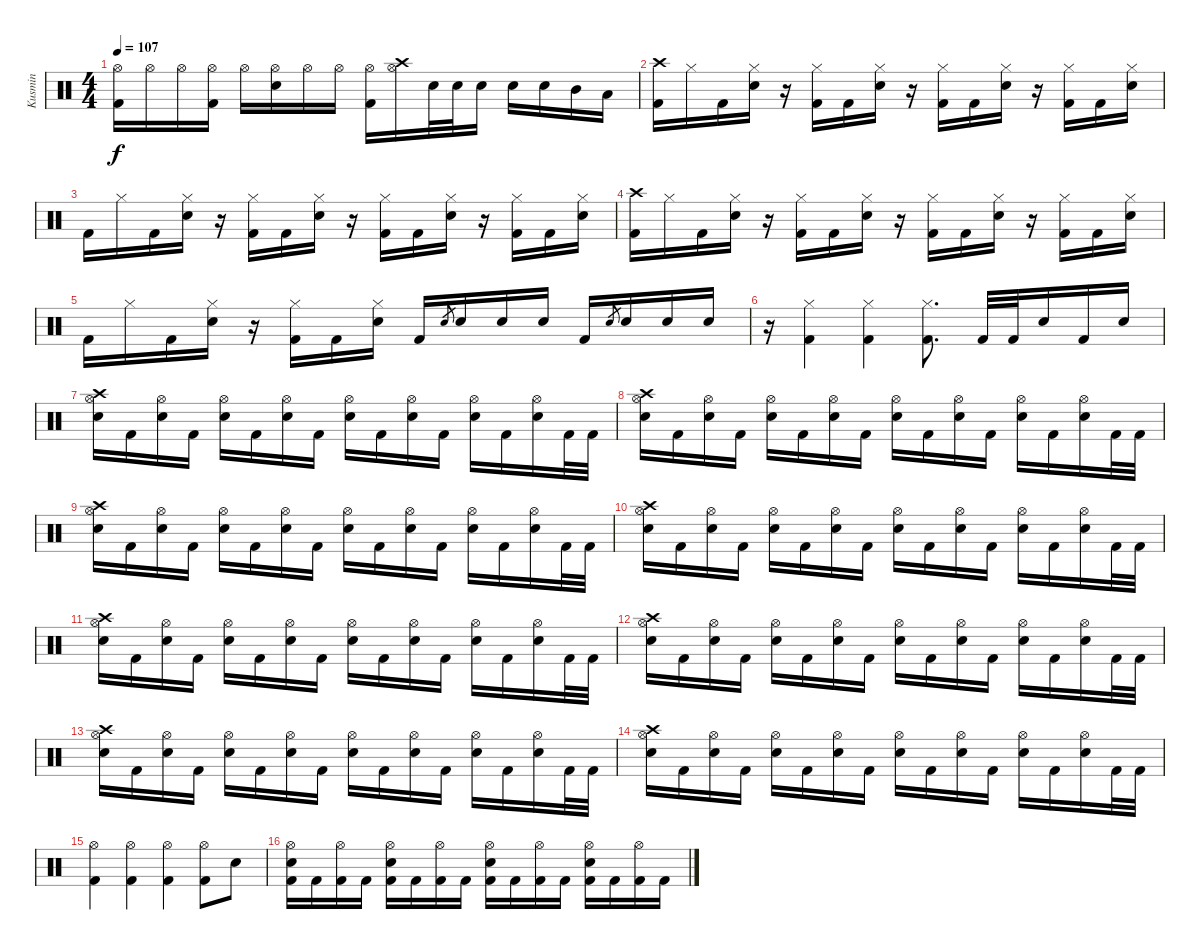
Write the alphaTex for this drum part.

\track ("Kusmin" "Kusmin") {instrument percussion}
\staff {score}
\articulation defaults
\ts (4 4)
\tempo 107
\clef neutral
\ks c
("Hi-Hat (open)" "Kick (hit) 2").16{dy f} "Hi-Hat (open)".16 "Hi-Hat (open)".16 ("Hi-Hat (open)" "Kick (hit) 2").16 "Hi-Hat (open)".16 ("Hi-Hat (open)" "Snare (hit) 2").16 "Hi-Hat (open)".16 "Hi-Hat (open)".16 ("Hi-Hat (open)" "Kick (hit) 2").16 ("Crash high (hit)" "Hi-Hat (open)").16 "Snare (hit) 2".32 "Snare (hit) 2".32 "Snare (hit) 2".16 "Snare (hit) 2".16 "Snare (hit) 2".16 "Mid Tom (hit)".16 "Low Tom (hit)".16 |
("Crash high (hit)" "Kick (hit) 2").16 "Hi-Hat (closed)".16 "Kick (hit) 2".16 ("Hi-Hat (closed)" "Snare (hit) 2").16 r.16 ("Hi-Hat (closed)" "Kick (hit) 2").16 "Kick (hit) 2".16 ("Hi-Hat (closed)" "Snare (hit) 2").16 r.16 ("Hi-Hat (closed)" "Kick (hit) 2").16 "Kick (hit) 2".16 ("Hi-Hat (closed)" "Snare (hit) 2").16 r.16 ("Hi-Hat (closed)" "Kick (hit) 2").16 "Kick (hit) 2".16 ("Hi-Hat (closed)" "Snare (hit) 2").16 |
"Kick (hit) 2".16 "Hi-Hat (closed)".16 "Kick (hit) 2".16 ("Hi-Hat (closed)" "Snare (hit) 2").16 r.16 ("Hi-Hat (closed)" "Kick (hit) 2").16 "Kick (hit) 2".16 ("Hi-Hat (closed)" "Snare (hit) 2").16 r.16 ("Hi-Hat (closed)" "Kick (hit) 2").16 "Kick (hit) 2".16 ("Hi-Hat (closed)" "Snare (hit) 2").16 r.16 ("Hi-Hat (closed)" "Kick (hit) 2").16 "Kick (hit) 2".16 ("Hi-Hat (closed)" "Snare (hit) 2").16 |
("Crash high (hit)" "Kick (hit) 2").16 "Hi-Hat (closed)".16 "Kick (hit) 2".16 ("Hi-Hat (closed)" "Snare (hit) 2").16 r.16 ("Hi-Hat (closed)" "Kick (hit) 2").16 "Kick (hit) 2".16 ("Hi-Hat (closed)" "Snare (hit) 2").16 r.16 ("Hi-Hat (closed)" "Kick (hit) 2").16 "Kick (hit) 2".16 ("Hi-Hat (closed)" "Snare (hit) 2").16 r.16 ("Hi-Hat (closed)" "Kick (hit) 2").16 "Kick (hit) 2".16 ("Hi-Hat (closed)" "Snare (hit) 2").16 |
"Kick (hit) 2".16 "Hi-Hat (closed)".16 "Kick (hit) 2".16 ("Hi-Hat (closed)" "Snare (hit) 2").16 r.16 ("Hi-Hat (closed)" "Kick (hit) 2").16 "Kick (hit) 2".16 ("Hi-Hat (closed)" "Snare (hit) 2").16 "Kick (hit) 2".16 "Snare (hit) 2".8{gr} "Snare (hit) 2".16 "Snare (hit) 2".16 "Snare (hit) 2".16 "Kick (hit) 2".16 "Snare (hit) 2".8{gr} "Snare (hit) 2".16 "Snare (hit) 2".16 "Snare (hit) 2".16 |
r.16 ("Hi-Hat (closed)" "Kick (hit) 2").4 ("Hi-Hat (closed)" "Kick (hit) 2").4 ("Hi-Hat (closed)" "Kick (hit) 2").8{d} "Kick (hit) 2".32 "Kick (hit) 2".32 "Snare (hit) 2".16 "Kick (hit) 2".16 "Snare (hit) 2".16 |
("Crash high (hit)" "Hi-Hat (open)" "Snare (hit) 2").16 "Kick (hit) 2".16 ("Hi-Hat (open)" "Snare (hit) 2").16 "Kick (hit) 2".16 ("Hi-Hat (open)" "Snare (hit) 2").16 "Kick (hit) 2".16 ("Hi-Hat (open)" "Snare (hit) 2").16 "Kick (hit) 2".16 ("Hi-Hat (open)" "Snare (hit) 2").16 "Kick (hit) 2".16 ("Hi-Hat (open)" "Snare (hit) 2").16 "Kick (hit) 2".16 ("Hi-Hat (open)" "Snare (hit) 2").16 "Kick (hit) 2".16 ("Hi-Hat (open)" "Snare (hit) 2").16 "Kick (hit) 2".32 "Kick (hit) 2".32 |
("Crash high (hit)" "Hi-Hat (open)" "Snare (hit) 2").16 "Kick (hit) 2".16 ("Hi-Hat (open)" "Snare (hit) 2").16 "Kick (hit) 2".16 ("Hi-Hat (open)" "Snare (hit) 2").16 "Kick (hit) 2".16 ("Hi-Hat (open)" "Snare (hit) 2").16 "Kick (hit) 2".16 ("Hi-Hat (open)" "Snare (hit) 2").16 "Kick (hit) 2".16 ("Hi-Hat (open)" "Snare (hit) 2").16 "Kick (hit) 2".16 ("Hi-Hat (open)" "Snare (hit) 2").16 "Kick (hit) 2".16 ("Hi-Hat (open)" "Snare (hit) 2").16 "Kick (hit) 2".32 "Kick (hit) 2".32 |
("Crash high (hit)" "Hi-Hat (open)" "Snare (hit) 2").16 "Kick (hit) 2".16 ("Hi-Hat (open)" "Snare (hit) 2").16 "Kick (hit) 2".16 ("Hi-Hat (open)" "Snare (hit) 2").16 "Kick (hit) 2".16 ("Hi-Hat (open)" "Snare (hit) 2").16 "Kick (hit) 2".16 ("Hi-Hat (open)" "Snare (hit) 2").16 "Kick (hit) 2".16 ("Hi-Hat (open)" "Snare (hit) 2").16 "Kick (hit) 2".16 ("Hi-Hat (open)" "Snare (hit) 2").16 "Kick (hit) 2".16 ("Hi-Hat (open)" "Snare (hit) 2").16 "Kick (hit) 2".32 "Kick (hit) 2".32 |
("Crash high (hit)" "Hi-Hat (open)" "Snare (hit) 2").16 "Kick (hit) 2".16 ("Hi-Hat (open)" "Snare (hit) 2").16 "Kick (hit) 2".16 ("Hi-Hat (open)" "Snare (hit) 2").16 "Kick (hit) 2".16 ("Hi-Hat (open)" "Snare (hit) 2").16 "Kick (hit) 2".16 ("Hi-Hat (open)" "Snare (hit) 2").16 "Kick (hit) 2".16 ("Hi-Hat (open)" "Snare (hit) 2").16 "Kick (hit) 2".16 ("Hi-Hat (open)" "Snare (hit) 2").16 "Kick (hit) 2".16 ("Hi-Hat (open)" "Snare (hit) 2").16 "Kick (hit) 2".32 "Kick (hit) 2".32 |
("Crash high (hit)" "Hi-Hat (open)" "Snare (hit) 2").16 "Kick (hit) 2".16 ("Hi-Hat (open)" "Snare (hit) 2").16 "Kick (hit) 2".16 ("Hi-Hat (open)" "Snare (hit) 2").16 "Kick (hit) 2".16 ("Hi-Hat (open)" "Snare (hit) 2").16 "Kick (hit) 2".16 ("Hi-Hat (open)" "Snare (hit) 2").16 "Kick (hit) 2".16 ("Hi-Hat (open)" "Snare (hit) 2").16 "Kick (hit) 2".16 ("Hi-Hat (open)" "Snare (hit) 2").16 "Kick (hit) 2".16 ("Hi-Hat (open)" "Snare (hit) 2").16 "Kick (hit) 2".32 "Kick (hit) 2".32 |
("Crash high (hit)" "Hi-Hat (open)" "Snare (hit) 2").16 "Kick (hit) 2".16 ("Hi-Hat (open)" "Snare (hit) 2").16 "Kick (hit) 2".16 ("Hi-Hat (open)" "Snare (hit) 2").16 "Kick (hit) 2".16 ("Hi-Hat (open)" "Snare (hit) 2").16 "Kick (hit) 2".16 ("Hi-Hat (open)" "Snare (hit) 2").16 "Kick (hit) 2".16 ("Hi-Hat (open)" "Snare (hit) 2").16 "Kick (hit) 2".16 ("Hi-Hat (open)" "Snare (hit) 2").16 "Kick (hit) 2".16 ("Hi-Hat (open)" "Snare (hit) 2").16 "Kick (hit) 2".32 "Kick (hit) 2".32 |
("Crash high (hit)" "Hi-Hat (open)" "Snare (hit) 2").16 "Kick (hit) 2".16 ("Hi-Hat (open)" "Snare (hit) 2").16 "Kick (hit) 2".16 ("Hi-Hat (open)" "Snare (hit) 2").16 "Kick (hit) 2".16 ("Hi-Hat (open)" "Snare (hit) 2").16 "Kick (hit) 2".16 ("Hi-Hat (open)" "Snare (hit) 2").16 "Kick (hit) 2".16 ("Hi-Hat (open)" "Snare (hit) 2").16 "Kick (hit) 2".16 ("Hi-Hat (open)" "Snare (hit) 2").16 "Kick (hit) 2".16 ("Hi-Hat (open)" "Snare (hit) 2").16 "Kick (hit) 2".32 "Kick (hit) 2".32 |
("Crash high (hit)" "Hi-Hat (open)" "Snare (hit) 2").16 "Kick (hit) 2".16 ("Hi-Hat (open)" "Snare (hit) 2").16 "Kick (hit) 2".16 ("Hi-Hat (open)" "Snare (hit) 2").16 "Kick (hit) 2".16 ("Hi-Hat (open)" "Snare (hit) 2").16 "Kick (hit) 2".16 ("Hi-Hat (open)" "Snare (hit) 2").16 "Kick (hit) 2".16 ("Hi-Hat (open)" "Snare (hit) 2").16 "Kick (hit) 2".16 ("Hi-Hat (open)" "Snare (hit) 2").16 "Kick (hit) 2".16 ("Hi-Hat (open)" "Snare (hit) 2").16 "Kick (hit) 2".32 "Kick (hit) 2".32 |
("Hi-Hat (open)" "Kick (hit) 2").4 ("Hi-Hat (open)" "Kick (hit) 2").4 ("Hi-Hat (open)" "Kick (hit) 2").4 ("Hi-Hat (open)" "Kick (hit) 2").8 "Snare (hit) 2".8 |
("Hi-Hat (open)" "Snare (hit) 2" "Kick (hit) 2").16 "Kick (hit) 2".16 ("Hi-Hat (open)" "Kick (hit) 2").16 "Kick (hit) 2".16 ("Hi-Hat (open)" "Snare (hit) 2" "Kick (hit) 2").16 "Kick (hit) 2".16 ("Hi-Hat (open)" "Kick (hit) 2").16 "Kick (hit) 2".16 ("Hi-Hat (open)" "Snare (hit) 2" "Kick (hit) 2").16 "Kick (hit) 2".16 ("Hi-Hat (open)" "Kick (hit) 2").16 "Kick (hit) 2".16 ("Hi-Hat (open)" "Snare (hit) 2" "Kick (hit) 2").16 "Kick (hit) 2".16 ("Hi-Hat (open)" "Kick (hit) 2").16 "Kick (hit) 2".16
